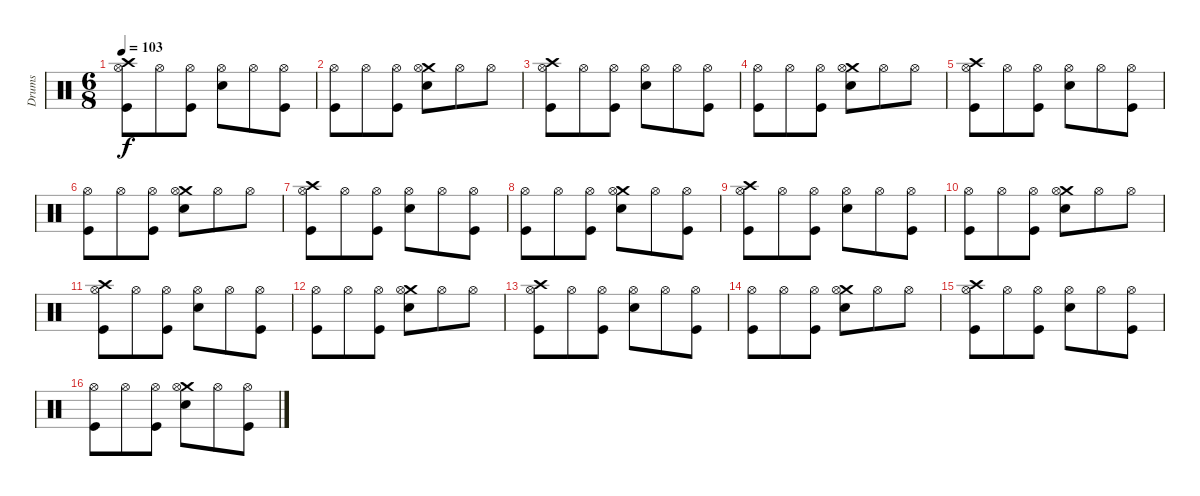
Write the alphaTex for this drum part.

\track ("Drums" "Drums") {instrument percussion}
\staff {score}
\articulation defaults
\ts (6 8)
\tempo 103
\clef neutral
\ks c
("Crash high (hit)" "Hi-Hat (open)" "Kick (hit)").8{dy f} "Hi-Hat (open)".8 ("Hi-Hat (open)" "Kick (hit)").8 ("Hi-Hat (open)" "Electric Snare (hit)").8 "Hi-Hat (open)".8 ("Hi-Hat (open)" "Kick (hit)").8 |
("Hi-Hat (open)" "Kick (hit)").8 "Hi-Hat (open)".8 ("Hi-Hat (open)" "Kick (hit)").8 ("Crash medium (hit)" "Hi-Hat (open)" "Electric Snare (hit)").8 "Hi-Hat (open)".8 "Hi-Hat (open)".8 |
("Crash high (hit)" "Hi-Hat (open)" "Kick (hit)").8 "Hi-Hat (open)".8 ("Hi-Hat (open)" "Kick (hit)").8 ("Hi-Hat (open)" "Electric Snare (hit)").8 "Hi-Hat (open)".8 ("Hi-Hat (open)" "Kick (hit)").8 |
("Hi-Hat (open)" "Kick (hit)").8 "Hi-Hat (open)".8 ("Hi-Hat (open)" "Kick (hit)").8 ("Crash medium (hit)" "Hi-Hat (open)" "Electric Snare (hit)").8 "Hi-Hat (open)".8 "Hi-Hat (open)".8 |
("Crash high (hit)" "Hi-Hat (open)" "Kick (hit)").8 "Hi-Hat (open)".8 ("Hi-Hat (open)" "Kick (hit)").8 ("Hi-Hat (open)" "Electric Snare (hit)").8 "Hi-Hat (open)".8 ("Hi-Hat (open)" "Kick (hit)").8 |
("Hi-Hat (open)" "Kick (hit)").8 "Hi-Hat (open)".8 ("Hi-Hat (open)" "Kick (hit)").8 ("Crash medium (hit)" "Hi-Hat (open)" "Electric Snare (hit)").8 "Hi-Hat (open)".8 "Hi-Hat (open)".8 |
("Crash high (hit)" "Hi-Hat (open)" "Kick (hit)").8 "Hi-Hat (open)".8 ("Hi-Hat (open)" "Kick (hit)").8 ("Hi-Hat (open)" "Electric Snare (hit)").8 "Hi-Hat (open)".8 ("Hi-Hat (open)" "Kick (hit)").8 |
("Hi-Hat (open)" "Kick (hit)").8 "Hi-Hat (open)".8 ("Hi-Hat (open)" "Kick (hit)").8 ("Crash medium (hit)" "Hi-Hat (open)" "Electric Snare (hit)").8 "Hi-Hat (open)".8 ("Hi-Hat (open)" "Kick (hit)").8 |
("Crash high (hit)" "Hi-Hat (open)" "Kick (hit)").8 "Hi-Hat (open)".8 ("Hi-Hat (open)" "Kick (hit)").8 ("Hi-Hat (open)" "Electric Snare (hit)").8 "Hi-Hat (open)".8 ("Hi-Hat (open)" "Kick (hit)").8 |
("Hi-Hat (open)" "Kick (hit)").8 "Hi-Hat (open)".8 ("Hi-Hat (open)" "Kick (hit)").8 ("Crash medium (hit)" "Hi-Hat (open)" "Electric Snare (hit)").8 "Hi-Hat (open)".8 "Hi-Hat (open)".8 |
("Crash high (hit)" "Hi-Hat (open)" "Kick (hit)").8 "Hi-Hat (open)".8 ("Hi-Hat (open)" "Kick (hit)").8 ("Hi-Hat (open)" "Electric Snare (hit)").8 "Hi-Hat (open)".8 ("Hi-Hat (open)" "Kick (hit)").8 |
("Hi-Hat (open)" "Kick (hit)").8 "Hi-Hat (open)".8 ("Hi-Hat (open)" "Kick (hit)").8 ("Crash medium (hit)" "Hi-Hat (open)" "Electric Snare (hit)").8 "Hi-Hat (open)".8 "Hi-Hat (open)".8 |
("Crash high (hit)" "Hi-Hat (open)" "Kick (hit)").8 "Hi-Hat (open)".8 ("Hi-Hat (open)" "Kick (hit)").8 ("Hi-Hat (open)" "Electric Snare (hit)").8 "Hi-Hat (open)".8 ("Hi-Hat (open)" "Kick (hit)").8 |
("Hi-Hat (open)" "Kick (hit)").8 "Hi-Hat (open)".8 ("Hi-Hat (open)" "Kick (hit)").8 ("Crash medium (hit)" "Hi-Hat (open)" "Electric Snare (hit)").8 "Hi-Hat (open)".8 "Hi-Hat (open)".8 |
("Crash high (hit)" "Hi-Hat (open)" "Kick (hit)").8 "Hi-Hat (open)".8 ("Hi-Hat (open)" "Kick (hit)").8 ("Hi-Hat (open)" "Electric Snare (hit)").8 "Hi-Hat (open)".8 ("Hi-Hat (open)" "Kick (hit)").8 |
("Hi-Hat (open)" "Kick (hit)").8 "Hi-Hat (open)".8 ("Hi-Hat (open)" "Kick (hit)").8 ("Crash medium (hit)" "Hi-Hat (open)" "Electric Snare (hit)").8 "Hi-Hat (open)".8 ("Hi-Hat (open)" "Kick (hit)").8
